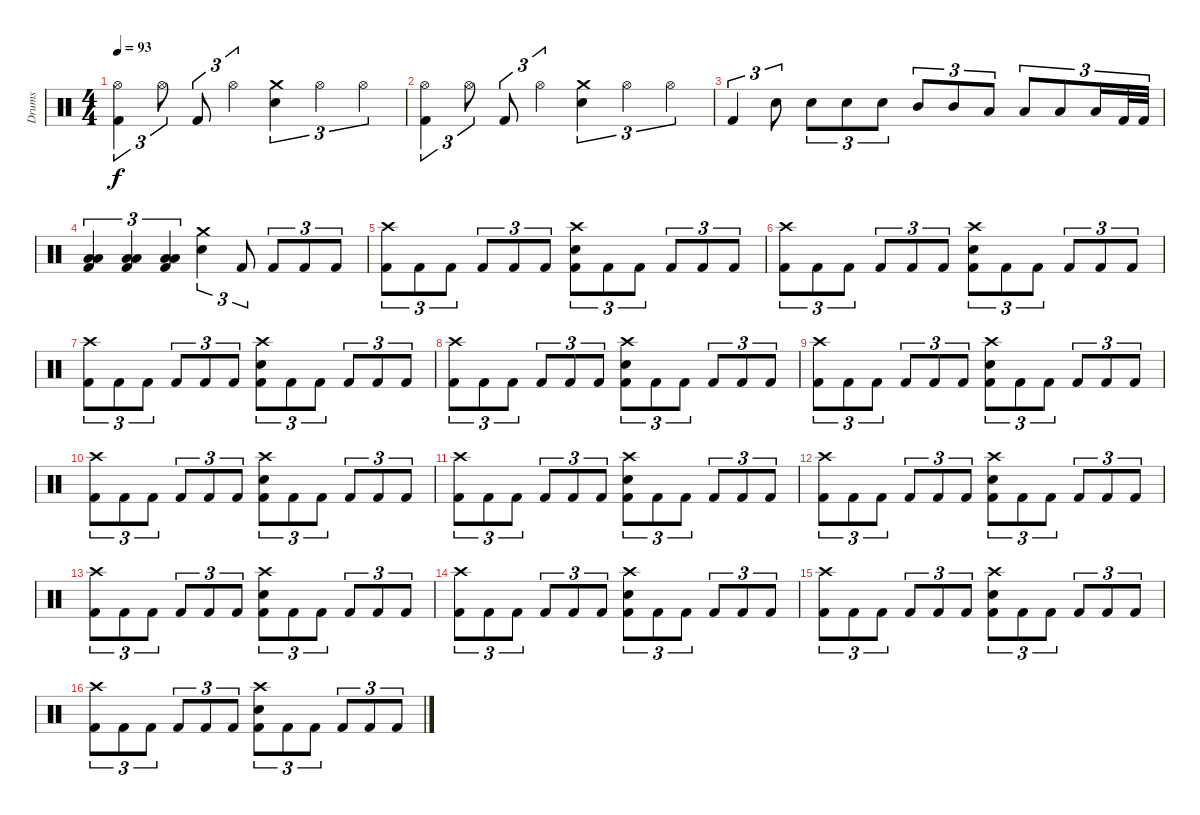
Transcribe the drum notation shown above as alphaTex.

\track ("Drums" "Drums") {instrument percussion}
\staff {score}
\articulation defaults
\ts (4 4)
\tempo 93
\clef neutral
\ks c
("Hi-Hat (open)" "Kick (hit) 2").4{tu (3 2) dy f} "Hi-Hat (open)".8{tu (3 2)} "Kick (hit) 2".8{tu (3 2)} "Hi-Hat (open)".4{tu (3 2)} ("Crash medium (hit)" "Electric Snare (hit)").4{tu (3 2)} "Hi-Hat (open)".4{tu (3 2)} "Hi-Hat (open)".4{tu (3 2)} |
("Hi-Hat (open)" "Kick (hit) 2").4{tu (3 2)} "Hi-Hat (open)".8{tu (3 2)} "Kick (hit) 2".8{tu (3 2)} "Hi-Hat (open)".4{tu (3 2)} ("Crash medium (hit)" "Electric Snare (hit)").4{tu (3 2)} "Hi-Hat (open)".4{tu (3 2)} "Hi-Hat (open)".4{tu (3 2)} |
"Kick (hit) 2".4{tu (3 2)} "Electric Snare (hit)".8{tu (3 2)} "Electric Snare (hit)".8{tu (3 2)} "Electric Snare (hit)".8{tu (3 2)} "Electric Snare (hit)".8{tu (3 2)} "Mid Tom (hit)".8{tu (3 2)} "Mid Tom (hit)".8{tu (3 2)} "Low Tom (hit)".8{tu (3 2)} "Low Tom (hit)".8{tu (3 2)} "Low Floor Tom (hit)".8{tu (3 2)} "Low Floor Tom (hit)".16{tu (3 2)} "Kick (hit) 2".32{tu (3 2)} "Kick (hit) 2".32{tu (3 2)} |
("Low Tom (hit)" "Low Floor Tom (hit)" "Kick (hit) 2").4{tu (3 2)} ("Low Tom (hit)" "Low Floor Tom (hit)" "Kick (hit) 2").4{tu (3 2)} ("Low Tom (hit)" "Low Floor Tom (hit)" "Kick (hit) 2").4{tu (3 2)} ("Crash medium (hit)" "Electric Snare (hit)").4{tu (3 2)} "Kick (hit) 2".8{tu (3 2)} "Kick (hit) 2".8{tu (3 2)} "Kick (hit) 2".8{tu (3 2)} "Kick (hit) 2".8{tu (3 2)} |
("Crash high (hit)" "Kick (hit) 2").8{tu (3 2)} "Kick (hit) 2".8{tu (3 2)} "Kick (hit) 2".8{tu (3 2)} "Kick (hit) 2".8{tu (3 2)} "Kick (hit) 2".8{tu (3 2)} "Kick (hit) 2".8{tu (3 2)} ("Crash high (hit)" "Electric Snare (hit)" "Kick (hit) 2").8{tu (3 2)} "Kick (hit) 2".8{tu (3 2)} "Kick (hit) 2".8{tu (3 2)} "Kick (hit) 2".8{tu (3 2)} "Kick (hit) 2".8{tu (3 2)} "Kick (hit) 2".8{tu (3 2)} |
("Crash high (hit)" "Kick (hit) 2").8{tu (3 2)} "Kick (hit) 2".8{tu (3 2)} "Kick (hit) 2".8{tu (3 2)} "Kick (hit) 2".8{tu (3 2)} "Kick (hit) 2".8{tu (3 2)} "Kick (hit) 2".8{tu (3 2)} ("Crash high (hit)" "Electric Snare (hit)" "Kick (hit) 2").8{tu (3 2)} "Kick (hit) 2".8{tu (3 2)} "Kick (hit) 2".8{tu (3 2)} "Kick (hit) 2".8{tu (3 2)} "Kick (hit) 2".8{tu (3 2)} "Kick (hit) 2".8{tu (3 2)} |
("Crash high (hit)" "Kick (hit) 2").8{tu (3 2)} "Kick (hit) 2".8{tu (3 2)} "Kick (hit) 2".8{tu (3 2)} "Kick (hit) 2".8{tu (3 2)} "Kick (hit) 2".8{tu (3 2)} "Kick (hit) 2".8{tu (3 2)} ("Crash high (hit)" "Electric Snare (hit)" "Kick (hit) 2").8{tu (3 2)} "Kick (hit) 2".8{tu (3 2)} "Kick (hit) 2".8{tu (3 2)} "Kick (hit) 2".8{tu (3 2)} "Kick (hit) 2".8{tu (3 2)} "Kick (hit) 2".8{tu (3 2)} |
("Crash high (hit)" "Kick (hit) 2").8{tu (3 2)} "Kick (hit) 2".8{tu (3 2)} "Kick (hit) 2".8{tu (3 2)} "Kick (hit) 2".8{tu (3 2)} "Kick (hit) 2".8{tu (3 2)} "Kick (hit) 2".8{tu (3 2)} ("Crash high (hit)" "Electric Snare (hit)" "Kick (hit) 2").8{tu (3 2)} "Kick (hit) 2".8{tu (3 2)} "Kick (hit) 2".8{tu (3 2)} "Kick (hit) 2".8{tu (3 2)} "Kick (hit) 2".8{tu (3 2)} "Kick (hit) 2".8{tu (3 2)} |
("Crash high (hit)" "Kick (hit) 2").8{tu (3 2)} "Kick (hit) 2".8{tu (3 2)} "Kick (hit) 2".8{tu (3 2)} "Kick (hit) 2".8{tu (3 2)} "Kick (hit) 2".8{tu (3 2)} "Kick (hit) 2".8{tu (3 2)} ("Crash high (hit)" "Electric Snare (hit)" "Kick (hit) 2").8{tu (3 2)} "Kick (hit) 2".8{tu (3 2)} "Kick (hit) 2".8{tu (3 2)} "Kick (hit) 2".8{tu (3 2)} "Kick (hit) 2".8{tu (3 2)} "Kick (hit) 2".8{tu (3 2)} |
("Crash high (hit)" "Kick (hit) 2").8{tu (3 2)} "Kick (hit) 2".8{tu (3 2)} "Kick (hit) 2".8{tu (3 2)} "Kick (hit) 2".8{tu (3 2)} "Kick (hit) 2".8{tu (3 2)} "Kick (hit) 2".8{tu (3 2)} ("Crash high (hit)" "Electric Snare (hit)" "Kick (hit) 2").8{tu (3 2)} "Kick (hit) 2".8{tu (3 2)} "Kick (hit) 2".8{tu (3 2)} "Kick (hit) 2".8{tu (3 2)} "Kick (hit) 2".8{tu (3 2)} "Kick (hit) 2".8{tu (3 2)} |
("Crash high (hit)" "Kick (hit) 2").8{tu (3 2)} "Kick (hit) 2".8{tu (3 2)} "Kick (hit) 2".8{tu (3 2)} "Kick (hit) 2".8{tu (3 2)} "Kick (hit) 2".8{tu (3 2)} "Kick (hit) 2".8{tu (3 2)} ("Crash high (hit)" "Electric Snare (hit)" "Kick (hit) 2").8{tu (3 2)} "Kick (hit) 2".8{tu (3 2)} "Kick (hit) 2".8{tu (3 2)} "Kick (hit) 2".8{tu (3 2)} "Kick (hit) 2".8{tu (3 2)} "Kick (hit) 2".8{tu (3 2)} |
("Crash high (hit)" "Kick (hit) 2").8{tu (3 2)} "Kick (hit) 2".8{tu (3 2)} "Kick (hit) 2".8{tu (3 2)} "Kick (hit) 2".8{tu (3 2)} "Kick (hit) 2".8{tu (3 2)} "Kick (hit) 2".8{tu (3 2)} ("Crash high (hit)" "Electric Snare (hit)" "Kick (hit) 2").8{tu (3 2)} "Kick (hit) 2".8{tu (3 2)} "Kick (hit) 2".8{tu (3 2)} "Kick (hit) 2".8{tu (3 2)} "Kick (hit) 2".8{tu (3 2)} "Kick (hit) 2".8{tu (3 2)} |
("Crash high (hit)" "Kick (hit) 2").8{tu (3 2)} "Kick (hit) 2".8{tu (3 2)} "Kick (hit) 2".8{tu (3 2)} "Kick (hit) 2".8{tu (3 2)} "Kick (hit) 2".8{tu (3 2)} "Kick (hit) 2".8{tu (3 2)} ("Crash high (hit)" "Electric Snare (hit)" "Kick (hit) 2").8{tu (3 2)} "Kick (hit) 2".8{tu (3 2)} "Kick (hit) 2".8{tu (3 2)} "Kick (hit) 2".8{tu (3 2)} "Kick (hit) 2".8{tu (3 2)} "Kick (hit) 2".8{tu (3 2)} |
("Crash high (hit)" "Kick (hit) 2").8{tu (3 2)} "Kick (hit) 2".8{tu (3 2)} "Kick (hit) 2".8{tu (3 2)} "Kick (hit) 2".8{tu (3 2)} "Kick (hit) 2".8{tu (3 2)} "Kick (hit) 2".8{tu (3 2)} ("Crash high (hit)" "Electric Snare (hit)" "Kick (hit) 2").8{tu (3 2)} "Kick (hit) 2".8{tu (3 2)} "Kick (hit) 2".8{tu (3 2)} "Kick (hit) 2".8{tu (3 2)} "Kick (hit) 2".8{tu (3 2)} "Kick (hit) 2".8{tu (3 2)} |
("Crash high (hit)" "Kick (hit) 2").8{tu (3 2)} "Kick (hit) 2".8{tu (3 2)} "Kick (hit) 2".8{tu (3 2)} "Kick (hit) 2".8{tu (3 2)} "Kick (hit) 2".8{tu (3 2)} "Kick (hit) 2".8{tu (3 2)} ("Crash high (hit)" "Electric Snare (hit)" "Kick (hit) 2").8{tu (3 2)} "Kick (hit) 2".8{tu (3 2)} "Kick (hit) 2".8{tu (3 2)} "Kick (hit) 2".8{tu (3 2)} "Kick (hit) 2".8{tu (3 2)} "Kick (hit) 2".8{tu (3 2)} |
("Crash high (hit)" "Kick (hit) 2").8{tu (3 2)} "Kick (hit) 2".8{tu (3 2)} "Kick (hit) 2".8{tu (3 2)} "Kick (hit) 2".8{tu (3 2)} "Kick (hit) 2".8{tu (3 2)} "Kick (hit) 2".8{tu (3 2)} ("Crash high (hit)" "Electric Snare (hit)" "Kick (hit) 2").8{tu (3 2)} "Kick (hit) 2".8{tu (3 2)} "Kick (hit) 2".8{tu (3 2)} "Kick (hit) 2".8{tu (3 2)} "Kick (hit) 2".8{tu (3 2)} "Kick (hit) 2".8{tu (3 2)}
